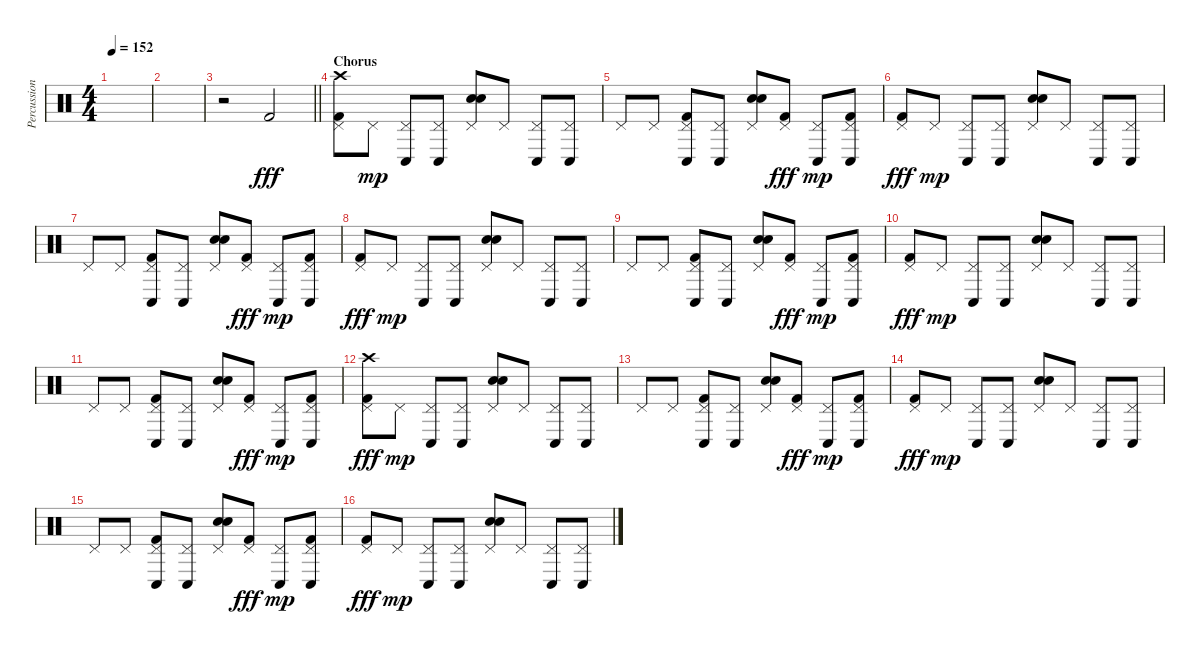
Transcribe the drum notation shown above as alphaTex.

\track ("Percussion" "Percussion") {instrument percussion}
\staff {score}
\articulation defaults
\ts (4 4)
\tempo 152
\clef neutral
\ks c
|
|
\barLineRight lightlight
r.2 "Kick (hit) 2".2{dy fff} |
\section ("" "Chorus")
("Pedal Hi-Hat (hit)" "Kick (hit) 2" "Crash high (hit)").8 "Pedal Hi-Hat (hit)".8{dy mp} ("Pedal Hi-Hat (hit)" "Conga low (hit)").8 ("Pedal Hi-Hat (hit)" "Conga low (hit)").8 ("Pedal Hi-Hat (hit)" "Electric Snare (hit)" "Hand Clap (hit)").8 "Pedal Hi-Hat (hit)".8 ("Pedal Hi-Hat (hit)" "Conga low (hit)").8 ("Pedal Hi-Hat (hit)" "Conga low (hit)").8 |
"Pedal Hi-Hat (hit)".8 "Pedal Hi-Hat (hit)".8 ("Pedal Hi-Hat (hit)" "Kick (hit) 2" "Conga low (hit)").8 ("Pedal Hi-Hat (hit)" "Conga low (hit)").8 ("Pedal Hi-Hat (hit)" "Electric Snare (hit)" "Hand Clap (hit)").8 ("Pedal Hi-Hat (hit)" "Kick (hit) 2").8{dy fff} ("Pedal Hi-Hat (hit)" "Conga low (hit)").8{dy mp} ("Pedal Hi-Hat (hit)" "Kick (hit) 2" "Conga low (hit)").8 |
("Pedal Hi-Hat (hit)" "Kick (hit) 2").8{dy fff} "Pedal Hi-Hat (hit)".8{dy mp} ("Pedal Hi-Hat (hit)" "Conga low (hit)").8 ("Pedal Hi-Hat (hit)" "Conga low (hit)").8 ("Pedal Hi-Hat (hit)" "Electric Snare (hit)" "Hand Clap (hit)").8 "Pedal Hi-Hat (hit)".8 ("Pedal Hi-Hat (hit)" "Conga low (hit)").8 ("Pedal Hi-Hat (hit)" "Conga low (hit)").8 |
"Pedal Hi-Hat (hit)".8 "Pedal Hi-Hat (hit)".8 ("Pedal Hi-Hat (hit)" "Kick (hit) 2" "Conga low (hit)").8 ("Pedal Hi-Hat (hit)" "Conga low (hit)").8 ("Pedal Hi-Hat (hit)" "Electric Snare (hit)" "Hand Clap (hit)").8 ("Pedal Hi-Hat (hit)" "Kick (hit) 2").8{dy fff} ("Pedal Hi-Hat (hit)" "Conga low (hit)").8{dy mp} ("Pedal Hi-Hat (hit)" "Kick (hit) 2" "Conga low (hit)").8 |
("Pedal Hi-Hat (hit)" "Kick (hit) 2").8{dy fff} "Pedal Hi-Hat (hit)".8{dy mp} ("Pedal Hi-Hat (hit)" "Conga low (hit)").8 ("Pedal Hi-Hat (hit)" "Conga low (hit)").8 ("Pedal Hi-Hat (hit)" "Electric Snare (hit)" "Hand Clap (hit)").8 "Pedal Hi-Hat (hit)".8 ("Pedal Hi-Hat (hit)" "Conga low (hit)").8 ("Pedal Hi-Hat (hit)" "Conga low (hit)").8 |
"Pedal Hi-Hat (hit)".8 "Pedal Hi-Hat (hit)".8 ("Pedal Hi-Hat (hit)" "Kick (hit) 2" "Conga low (hit)").8 ("Pedal Hi-Hat (hit)" "Conga low (hit)").8 ("Pedal Hi-Hat (hit)" "Electric Snare (hit)" "Hand Clap (hit)").8 ("Pedal Hi-Hat (hit)" "Kick (hit) 2").8{dy fff} ("Pedal Hi-Hat (hit)" "Conga low (hit)").8{dy mp} ("Pedal Hi-Hat (hit)" "Kick (hit) 2" "Conga low (hit)").8 |
("Pedal Hi-Hat (hit)" "Kick (hit) 2").8{dy fff} "Pedal Hi-Hat (hit)".8{dy mp} ("Pedal Hi-Hat (hit)" "Conga low (hit)").8 ("Pedal Hi-Hat (hit)" "Conga low (hit)").8 ("Pedal Hi-Hat (hit)" "Electric Snare (hit)" "Hand Clap (hit)").8 "Pedal Hi-Hat (hit)".8 ("Pedal Hi-Hat (hit)" "Conga low (hit)").8 ("Pedal Hi-Hat (hit)" "Conga low (hit)").8 |
"Pedal Hi-Hat (hit)".8 "Pedal Hi-Hat (hit)".8 ("Pedal Hi-Hat (hit)" "Kick (hit) 2" "Conga low (hit)").8 ("Pedal Hi-Hat (hit)" "Conga low (hit)").8 ("Pedal Hi-Hat (hit)" "Electric Snare (hit)" "Hand Clap (hit)").8 ("Pedal Hi-Hat (hit)" "Kick (hit) 2").8{dy fff} ("Pedal Hi-Hat (hit)" "Conga low (hit)").8{dy mp} ("Pedal Hi-Hat (hit)" "Kick (hit) 2" "Conga low (hit)").8 |
("Pedal Hi-Hat (hit)" "Kick (hit) 2" "Crash high (hit)").8{dy fff} "Pedal Hi-Hat (hit)".8{dy mp} ("Pedal Hi-Hat (hit)" "Conga low (hit)").8 ("Pedal Hi-Hat (hit)" "Conga low (hit)").8 ("Pedal Hi-Hat (hit)" "Electric Snare (hit)" "Hand Clap (hit)").8 "Pedal Hi-Hat (hit)".8 ("Pedal Hi-Hat (hit)" "Conga low (hit)").8 ("Pedal Hi-Hat (hit)" "Conga low (hit)").8 |
"Pedal Hi-Hat (hit)".8 "Pedal Hi-Hat (hit)".8 ("Pedal Hi-Hat (hit)" "Kick (hit) 2" "Conga low (hit)").8 ("Pedal Hi-Hat (hit)" "Conga low (hit)").8 ("Pedal Hi-Hat (hit)" "Electric Snare (hit)" "Hand Clap (hit)").8 ("Pedal Hi-Hat (hit)" "Kick (hit) 2").8{dy fff} ("Pedal Hi-Hat (hit)" "Conga low (hit)").8{dy mp} ("Pedal Hi-Hat (hit)" "Kick (hit) 2" "Conga low (hit)").8 |
("Pedal Hi-Hat (hit)" "Kick (hit) 2").8{dy fff} "Pedal Hi-Hat (hit)".8{dy mp} ("Pedal Hi-Hat (hit)" "Conga low (hit)").8 ("Pedal Hi-Hat (hit)" "Conga low (hit)").8 ("Pedal Hi-Hat (hit)" "Electric Snare (hit)" "Hand Clap (hit)").8 "Pedal Hi-Hat (hit)".8 ("Pedal Hi-Hat (hit)" "Conga low (hit)").8 ("Pedal Hi-Hat (hit)" "Conga low (hit)").8 |
"Pedal Hi-Hat (hit)".8 "Pedal Hi-Hat (hit)".8 ("Pedal Hi-Hat (hit)" "Kick (hit) 2" "Conga low (hit)").8 ("Pedal Hi-Hat (hit)" "Conga low (hit)").8 ("Pedal Hi-Hat (hit)" "Electric Snare (hit)" "Hand Clap (hit)").8 ("Pedal Hi-Hat (hit)" "Kick (hit) 2").8{dy fff} ("Pedal Hi-Hat (hit)" "Conga low (hit)").8{dy mp} ("Pedal Hi-Hat (hit)" "Kick (hit) 2" "Conga low (hit)").8 |
("Pedal Hi-Hat (hit)" "Kick (hit) 2").8{dy fff} "Pedal Hi-Hat (hit)".8{dy mp} ("Pedal Hi-Hat (hit)" "Conga low (hit)").8 ("Pedal Hi-Hat (hit)" "Conga low (hit)").8 ("Pedal Hi-Hat (hit)" "Electric Snare (hit)" "Hand Clap (hit)").8 "Pedal Hi-Hat (hit)".8 ("Pedal Hi-Hat (hit)" "Conga low (hit)").8 ("Pedal Hi-Hat (hit)" "Conga low (hit)").8
